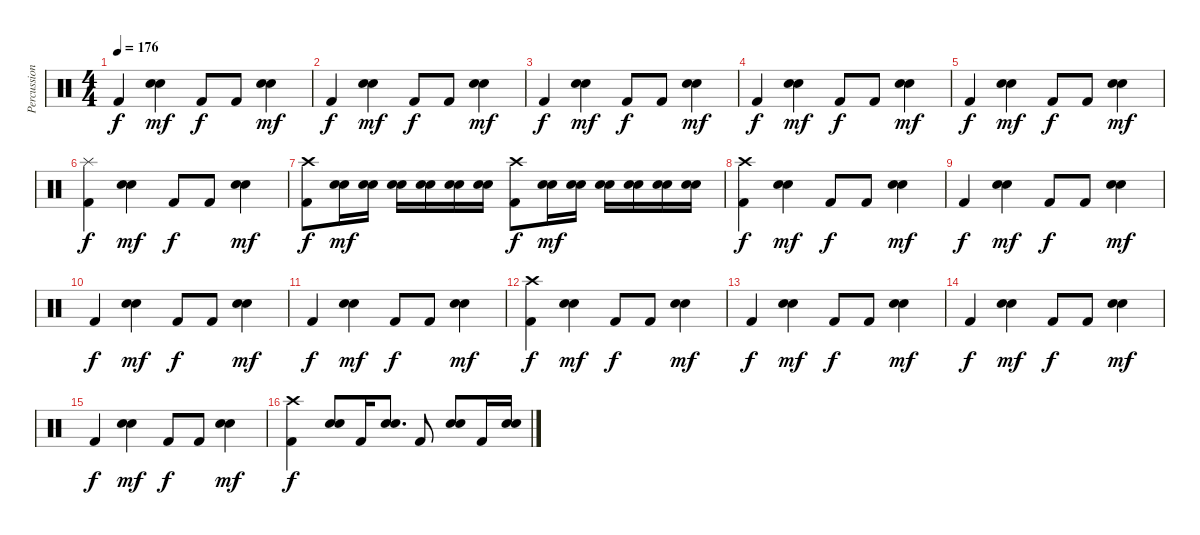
\track ("Percussion" "Percussion") {instrument percussion}
\staff {score}
\articulation defaults
\ts (4 4)
\tempo 176
\clef neutral
\ks c "Kick (hit) 2".4{dy f}
("Electric Snare (hit)" "Snare (hit) 2").4{dy mf} "Kick (hit) 2".8{dy f} "Kick (hit) 2".8 ("Electric Snare (hit)" "Snare (hit) 2").4{dy mf} |
"Kick (hit) 2".4{dy f} ("Electric Snare (hit)" "Snare (hit) 2").4{dy mf} "Kick (hit) 2".8{dy f} "Kick (hit) 2".8 ("Electric Snare (hit)" "Snare (hit) 2").4{dy mf} |
"Kick (hit) 2".4{dy f} ("Electric Snare (hit)" "Snare (hit) 2").4{dy mf} "Kick (hit) 2".8{dy f} "Kick (hit) 2".8 ("Electric Snare (hit)" "Snare (hit) 2").4{dy mf} |
"Kick (hit) 2".4{dy f} ("Electric Snare (hit)" "Snare (hit) 2").4{dy mf} "Kick (hit) 2".8{dy f} "Kick (hit) 2".8 ("Electric Snare (hit)" "Snare (hit) 2").4{dy mf} |
"Kick (hit) 2".4{dy f} ("Electric Snare (hit)" "Snare (hit) 2").4{dy mf} "Kick (hit) 2".8{dy f} "Kick (hit) 2".8 ("Electric Snare (hit)" "Snare (hit) 2").4{dy mf} |
("Kick (hit) 2" "Splash (hit)").4{dy f} ("Electric Snare (hit)" "Snare (hit) 2").4{dy mf} "Kick (hit) 2".8{dy f} "Kick (hit) 2".8 ("Electric Snare (hit)" "Snare (hit) 2").4{dy mf} |
("Kick (hit) 2" "Crash high (hit)").8{dy f} ("Electric Snare (hit)" "Snare (hit) 2").16{dy mf} ("Electric Snare (hit)" "Snare (hit) 2").16 ("Electric Snare (hit)" "Snare (hit) 2").16 ("Electric Snare (hit)" "Snare (hit) 2").16 ("Electric Snare (hit)" "Snare (hit) 2").16 ("Electric Snare (hit)" "Snare (hit) 2").16 ("Kick (hit) 2" "Crash high (hit)").8{dy f} ("Electric Snare (hit)" "Snare (hit) 2").16{dy mf} ("Electric Snare (hit)" "Snare (hit) 2").16 ("Electric Snare (hit)" "Snare (hit) 2").16 ("Electric Snare (hit)" "Snare (hit) 2").16 ("Electric Snare (hit)" "Snare (hit) 2").16 ("Electric Snare (hit)" "Snare (hit) 2").16 |
("Kick (hit) 2" "Crash high (hit)").4{dy f} ("Electric Snare (hit)" "Snare (hit) 2").4{dy mf} "Kick (hit) 2".8{dy f} "Kick (hit) 2".8 ("Electric Snare (hit)" "Snare (hit) 2").4{dy mf} |
"Kick (hit) 2".4{dy f} ("Electric Snare (hit)" "Snare (hit) 2").4{dy mf} "Kick (hit) 2".8{dy f} "Kick (hit) 2".8 ("Electric Snare (hit)" "Snare (hit) 2").4{dy mf} |
"Kick (hit) 2".4{dy f} ("Electric Snare (hit)" "Snare (hit) 2").4{dy mf} "Kick (hit) 2".8{dy f} "Kick (hit) 2".8 ("Electric Snare (hit)" "Snare (hit) 2").4{dy mf} |
"Kick (hit) 2".4{dy f} ("Electric Snare (hit)" "Snare (hit) 2").4{dy mf} "Kick (hit) 2".8{dy f} "Kick (hit) 2".8 ("Electric Snare (hit)" "Snare (hit) 2").4{dy mf} |
("Kick (hit) 2" "Crash high (hit)").4{dy f} ("Electric Snare (hit)" "Snare (hit) 2").4{dy mf} "Kick (hit) 2".8{dy f} "Kick (hit) 2".8 ("Electric Snare (hit)" "Snare (hit) 2").4{dy mf} |
"Kick (hit) 2".4{dy f} ("Electric Snare (hit)" "Snare (hit) 2").4{dy mf} "Kick (hit) 2".8{dy f} "Kick (hit) 2".8 ("Electric Snare (hit)" "Snare (hit) 2").4{dy mf} |
"Kick (hit) 2".4{dy f} ("Electric Snare (hit)" "Snare (hit) 2").4{dy mf} "Kick (hit) 2".8{dy f} "Kick (hit) 2".8 ("Electric Snare (hit)" "Snare (hit) 2").4{dy mf} |
"Kick (hit) 2".4{dy f} ("Electric Snare (hit)" "Snare (hit) 2").4{dy mf} "Kick (hit) 2".8{dy f} "Kick (hit) 2".8 ("Electric Snare (hit)" "Snare (hit) 2").4{dy mf} |
("Kick (hit) 2" "Crash high (hit)").4{dy f} ("Electric Snare (hit)" "Snare (hit) 2").8 "Kick (hit) 2".16 ("Electric Snare (hit)" "Snare (hit) 2").8{d} "Kick (hit) 2".8 ("Electric Snare (hit)" "Snare (hit) 2").8 "Kick (hit) 2".16 ("Electric Snare (hit)" "Snare (hit) 2").16
